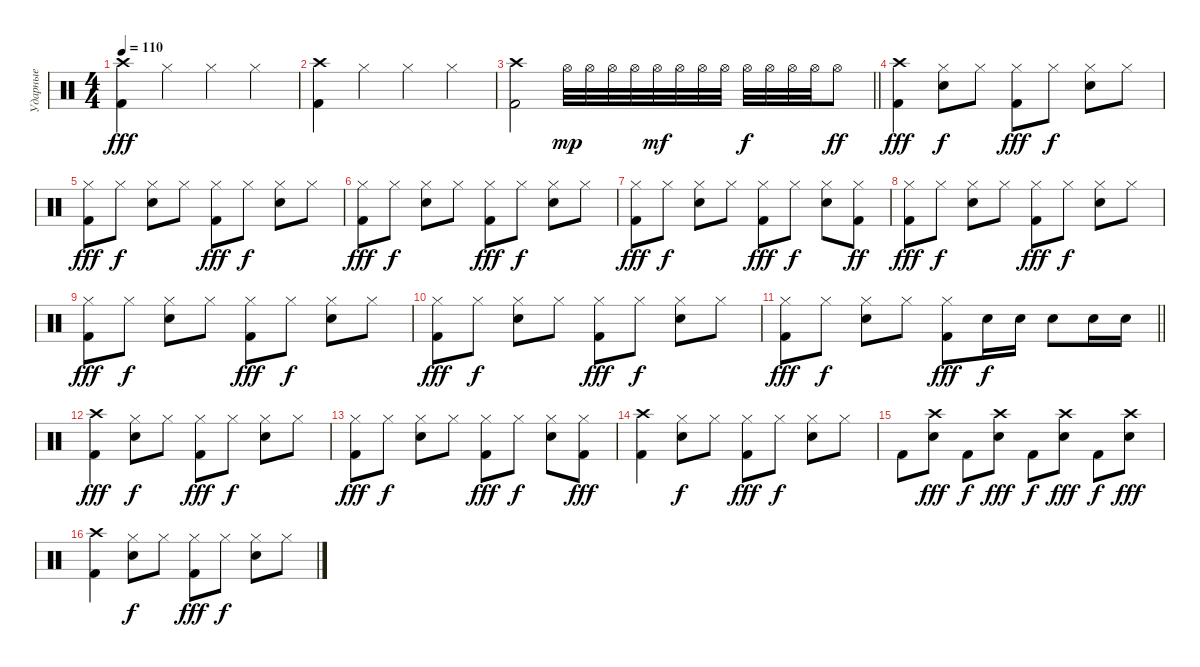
\track ("Ударные" "Ударные") {instrument percussion}
\staff
\articulation defaults
\ts (4 4)
\tempo 110
\clef neutral
\ks c
("Kick (hit) 2" "Crash high (hit)").4{dy fff} "Hi-Hat (closed)".4 "Hi-Hat (closed)".4 "Hi-Hat (closed)".4 |
("Kick (hit) 2" "Crash high (hit)").4 "Hi-Hat (closed)".4 "Hi-Hat (closed)".4 "Hi-Hat (closed)".4 |
\barLineRight lightlight
("Kick (hit) 2" "Crash high (hit)").2 "Hi-Hat (open)".32{dy mp} "Hi-Hat (open)".32 "Hi-Hat (open)".32 "Hi-Hat (open)".32 "Hi-Hat (open)".32{dy mf} "Hi-Hat (open)".32 "Hi-Hat (open)".32 "Hi-Hat (open)".32 "Hi-Hat (open)".32{dy f} "Hi-Hat (open)".32 "Hi-Hat (open)".32 "Hi-Hat (open)".32 "Hi-Hat (open)".8{dy ff} |
("Kick (hit) 2" "Crash high (hit)").4{dy fff} ("Snare (hit) 2" "Hi-Hat (closed)").8{dy f} "Hi-Hat (closed)".8 ("Kick (hit) 2" "Hi-Hat (closed)").8{dy fff} "Hi-Hat (closed)".8{dy f} ("Snare (hit) 2" "Hi-Hat (closed)").8 "Hi-Hat (closed)".8 |
("Kick (hit) 2" "Hi-Hat (closed)").8{dy fff} "Hi-Hat (closed)".8{dy f} ("Snare (hit) 2" "Hi-Hat (closed)").8 "Hi-Hat (closed)".8 ("Kick (hit) 2" "Hi-Hat (closed)").8{dy fff} "Hi-Hat (closed)".8{dy f} ("Snare (hit) 2" "Hi-Hat (closed)").8 "Hi-Hat (closed)".8 |
("Kick (hit) 2" "Hi-Hat (closed)").8{dy fff} "Hi-Hat (closed)".8{dy f} ("Snare (hit) 2" "Hi-Hat (closed)").8 "Hi-Hat (closed)".8 ("Kick (hit) 2" "Hi-Hat (closed)").8{dy fff} "Hi-Hat (closed)".8{dy f} ("Snare (hit) 2" "Hi-Hat (closed)").8 "Hi-Hat (closed)".8 |
("Kick (hit) 2" "Hi-Hat (closed)").8{dy fff} "Hi-Hat (closed)".8{dy f} ("Snare (hit) 2" "Hi-Hat (closed)").8 "Hi-Hat (closed)".8 ("Kick (hit) 2" "Hi-Hat (closed)").8{dy fff} "Hi-Hat (closed)".8{dy f} ("Snare (hit) 2" "Hi-Hat (closed)").8 ("Kick (hit) 2" "Hi-Hat (closed)").8{dy ff} |
("Kick (hit) 2" "Hi-Hat (closed)").8{dy fff} "Hi-Hat (closed)".8{dy f} ("Snare (hit) 2" "Hi-Hat (closed)").8 "Hi-Hat (closed)".8 ("Kick (hit) 2" "Hi-Hat (closed)").8{dy fff} "Hi-Hat (closed)".8{dy f} ("Snare (hit) 2" "Hi-Hat (closed)").8 "Hi-Hat (closed)".8 |
("Kick (hit) 2" "Hi-Hat (closed)").8{dy fff} "Hi-Hat (closed)".8{dy f} ("Snare (hit) 2" "Hi-Hat (closed)").8 "Hi-Hat (closed)".8 ("Kick (hit) 2" "Hi-Hat (closed)").8{dy fff} "Hi-Hat (closed)".8{dy f} ("Snare (hit) 2" "Hi-Hat (closed)").8 "Hi-Hat (closed)".8 |
("Kick (hit) 2" "Hi-Hat (closed)").8{dy fff} "Hi-Hat (closed)".8{dy f} ("Snare (hit) 2" "Hi-Hat (closed)").8 "Hi-Hat (closed)".8 ("Kick (hit) 2" "Hi-Hat (closed)").8{dy fff} "Hi-Hat (closed)".8{dy f} ("Snare (hit) 2" "Hi-Hat (closed)").8 "Hi-Hat (closed)".8 |
\barLineRight lightlight
("Kick (hit) 2" "Hi-Hat (closed)").8{dy fff} "Hi-Hat (closed)".8{dy f} ("Snare (hit) 2" "Hi-Hat (closed)").8 "Hi-Hat (closed)".8 ("Kick (hit) 2" "Hi-Hat (closed)").8{dy fff} "Snare (hit) 2".16{dy f} "Snare (hit) 2".16 "Snare (hit) 2".8 "Snare (hit) 2".16 "Snare (hit) 2".16 |
("Kick (hit) 2" "Crash high (hit)").4{dy fff} ("Snare (hit) 2" "Hi-Hat (closed)").8{dy f} "Hi-Hat (closed)".8 ("Kick (hit) 2" "Hi-Hat (closed)").8{dy fff} "Hi-Hat (closed)".8{dy f} ("Snare (hit) 2" "Hi-Hat (closed)").8 "Hi-Hat (closed)".8 |
("Kick (hit) 2" "Hi-Hat (closed)").8{dy fff} "Hi-Hat (closed)".8{dy f} ("Snare (hit) 2" "Hi-Hat (closed)").8 "Hi-Hat (closed)".8 ("Kick (hit) 2" "Hi-Hat (closed)").8{dy fff} "Hi-Hat (closed)".8{dy f} ("Snare (hit) 2" "Hi-Hat (closed)").8 ("Kick (hit) 2" "Hi-Hat (closed)").8{dy fff} |
("Kick (hit) 2" "Crash high (hit)").4 ("Snare (hit) 2" "Hi-Hat (closed)").8{dy f} "Hi-Hat (closed)".8 ("Kick (hit) 2" "Hi-Hat (closed)").8{dy fff} "Hi-Hat (closed)".8{dy f} ("Snare (hit) 2" "Hi-Hat (closed)").8 "Hi-Hat (closed)".8 |
"Kick (hit) 2".8 ("Snare (hit) 2" "Crash high (hit)").8{dy fff} "Kick (hit) 2".8{dy f} ("Snare (hit) 2" "Crash high (hit)").8{dy fff} "Kick (hit) 2".8{dy f} ("Snare (hit) 2" "Crash high (hit)").8{dy fff} "Kick (hit) 2".8{dy f} ("Snare (hit) 2" "Crash high (hit)").8{dy fff} |
("Kick (hit) 2" "Crash high (hit)").4 ("Snare (hit) 2" "Hi-Hat (closed)").8{dy f} "Hi-Hat (closed)".8 ("Kick (hit) 2" "Hi-Hat (closed)").8{dy fff} "Hi-Hat (closed)".8{dy f} ("Snare (hit) 2" "Hi-Hat (closed)").8 "Hi-Hat (closed)".8
